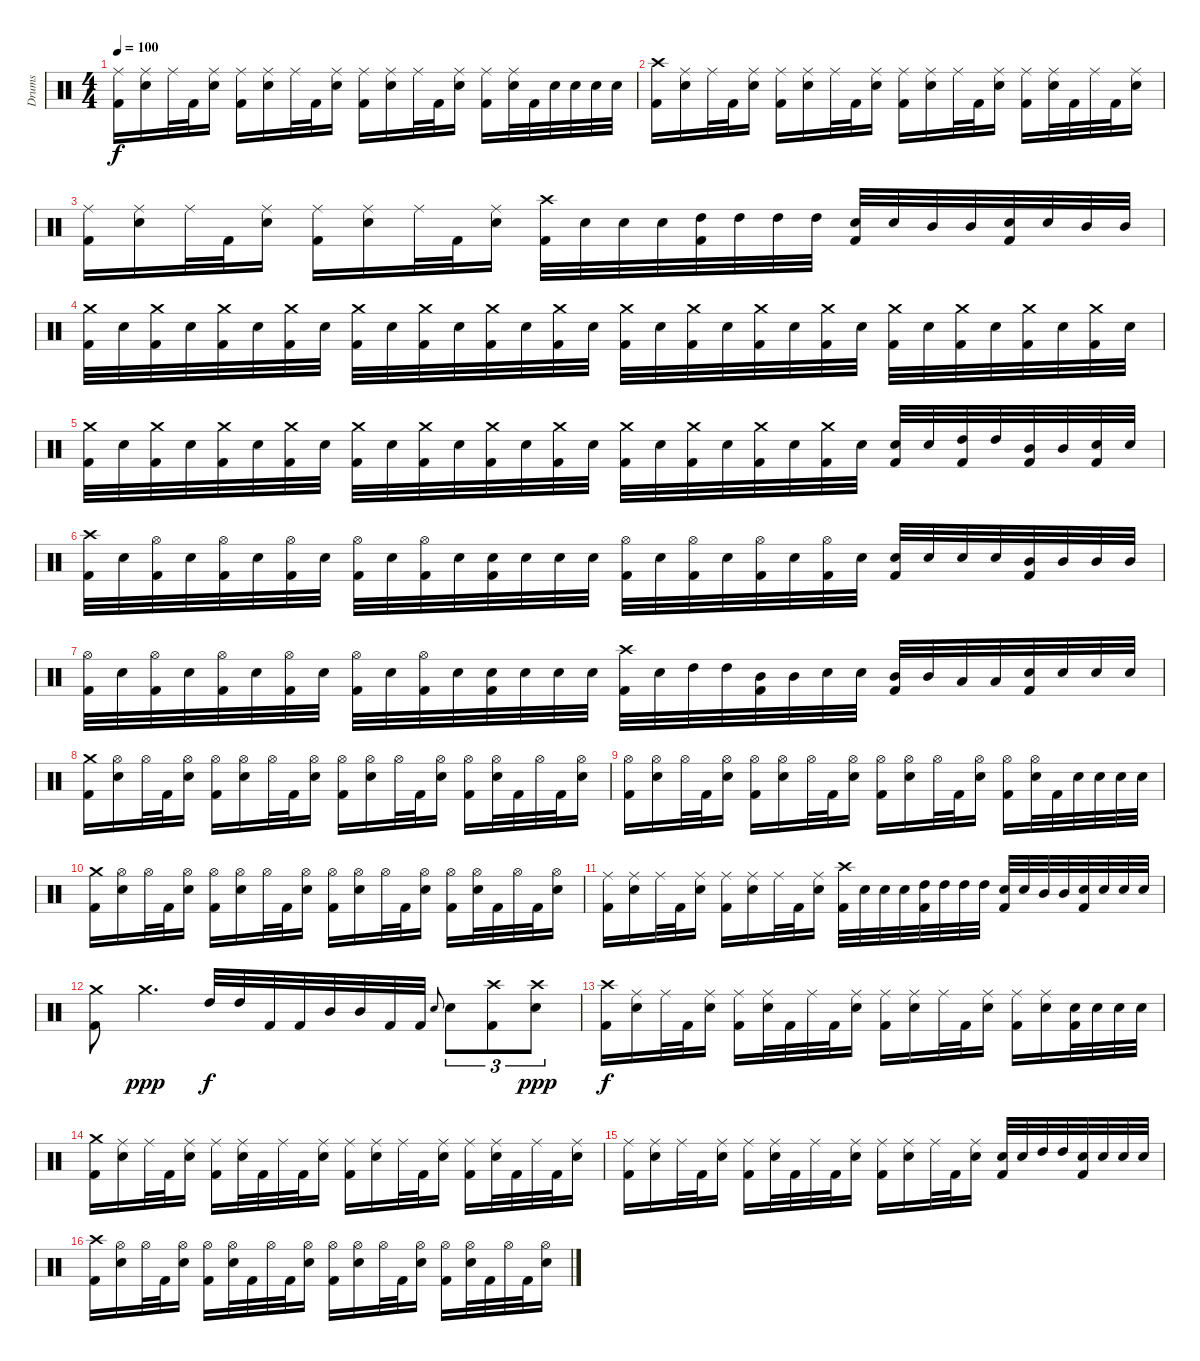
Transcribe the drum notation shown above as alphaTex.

\track ("Drums" "Drums") {instrument percussion}
\staff {score}
\articulation defaults
\ts (4 4)
\tempo 100
\clef neutral
\ks c
("Ride (middle)" "Kick (hit) 2").16{dy f} ("Ride (middle)" "Electric Snare (hit)").16 "Ride (middle)".32 "Kick (hit) 2".32 ("Ride (middle)" "Electric Snare (hit)").16 ("Ride (middle)" "Kick (hit) 2").16 ("Ride (middle)" "Electric Snare (hit)").16 "Ride (middle)".32 "Kick (hit) 2".32 ("Ride (middle)" "Electric Snare (hit)").16 ("Ride (middle)" "Kick (hit) 2").16 ("Ride (middle)" "Electric Snare (hit)").16 "Ride (middle)".32 "Kick (hit) 2".32 ("Ride (middle)" "Electric Snare (hit)").16 ("Ride (middle)" "Kick (hit) 2").16 ("Ride (middle)" "Electric Snare (hit)").32 "Kick (hit) 2".32 "Electric Snare (hit)".32 "Electric Snare (hit)".32 "Electric Snare (hit)".32 "Electric Snare (hit)".32 |
("Crash high (hit)" "Kick (hit) 2").16 ("Ride (middle)" "Electric Snare (hit)").16 "Ride (middle)".32 "Kick (hit) 2".32 ("Ride (middle)" "Electric Snare (hit)").16 ("Ride (middle)" "Kick (hit) 2").16 ("Ride (middle)" "Electric Snare (hit)").16 "Ride (middle)".32 "Kick (hit) 2".32 ("Ride (middle)" "Electric Snare (hit)").16 ("Ride (middle)" "Kick (hit) 2").16 ("Ride (middle)" "Electric Snare (hit)").16 "Ride (middle)".32 "Kick (hit) 2".32 ("Ride (middle)" "Electric Snare (hit)").16 ("Ride (middle)" "Kick (hit) 2").16 ("Ride (middle)" "Electric Snare (hit)").32 "Kick (hit) 2".32 "Ride (middle)".32 "Kick (hit) 2".32 ("Ride (middle)" "Electric Snare (hit)").16 |
("Ride (middle)" "Kick (hit) 2").16 ("Ride (middle)" "Electric Snare (hit)").16 "Ride (middle)".32 "Kick (hit) 2".32 ("Ride (middle)" "Electric Snare (hit)").16 ("Ride (middle)" "Kick (hit) 2").16 ("Ride (middle)" "Electric Snare (hit)").16 "Ride (middle)".32 "Kick (hit) 2".32 ("Ride (middle)" "Electric Snare (hit)").16 ("Crash high (hit)" "Kick (hit) 2").32 "Electric Snare (hit)".32 "Electric Snare (hit)".32 "Electric Snare (hit)".32 ("High Tom (hit)" "Kick (hit) 2").32 "High Tom (hit)".32 "High Tom (hit)".32 "High Tom (hit)".32 ("Electric Snare (hit)" "Kick (hit) 2").32 "Electric Snare (hit)".32 "Mid Tom (hit)".32 "Mid Tom (hit)".32 ("Electric Snare (hit)" "Kick (hit) 2").32 "Electric Snare (hit)".32 "Mid Tom (hit)".32 "Mid Tom (hit)".32 |
("Crash medium (hit)" "Kick (hit) 2").32 "Electric Snare (hit)".32 ("Crash medium (hit)" "Kick (hit) 2").32 "Electric Snare (hit)".32 ("Crash medium (hit)" "Kick (hit) 2").32 "Electric Snare (hit)".32 ("Crash medium (hit)" "Kick (hit) 2").32 "Electric Snare (hit)".32 ("Crash medium (hit)" "Kick (hit) 2").32 "Electric Snare (hit)".32 ("Crash medium (hit)" "Kick (hit) 2").32 "Electric Snare (hit)".32 ("Crash medium (hit)" "Kick (hit) 2").32 "Electric Snare (hit)".32 ("Crash medium (hit)" "Kick (hit) 2").32 "Electric Snare (hit)".32 ("Crash medium (hit)" "Kick (hit) 2").32 "Electric Snare (hit)".32 ("Crash medium (hit)" "Kick (hit) 2").32 "Electric Snare (hit)".32 ("Crash medium (hit)" "Kick (hit) 2").32 "Electric Snare (hit)".32 ("Crash medium (hit)" "Kick (hit) 2").32 "Electric Snare (hit)".32 ("Crash medium (hit)" "Kick (hit) 2").32 "Electric Snare (hit)".32 ("Crash medium (hit)" "Kick (hit) 2").32 "Electric Snare (hit)".32 ("Crash medium (hit)" "Kick (hit) 2").32 "Electric Snare (hit)".32 ("Crash medium (hit)" "Kick (hit) 2").32 "Electric Snare (hit)".32 |
("Crash medium (hit)" "Kick (hit) 2").32 "Electric Snare (hit)".32 ("Crash medium (hit)" "Kick (hit) 2").32 "Electric Snare (hit)".32 ("Crash medium (hit)" "Kick (hit) 2").32 "Electric Snare (hit)".32 ("Crash medium (hit)" "Kick (hit) 2").32 "Electric Snare (hit)".32 ("Crash medium (hit)" "Kick (hit) 2").32 "Electric Snare (hit)".32 ("Crash medium (hit)" "Kick (hit) 2").32 "Electric Snare (hit)".32 ("Crash medium (hit)" "Kick (hit) 2").32 "Electric Snare (hit)".32 ("Crash medium (hit)" "Kick (hit) 2").32 "Electric Snare (hit)".32 ("Crash medium (hit)" "Kick (hit) 2").32 "Electric Snare (hit)".32 ("Crash medium (hit)" "Kick (hit) 2").32 "Electric Snare (hit)".32 ("Crash medium (hit)" "Kick (hit) 2").32 "Electric Snare (hit)".32 ("Crash medium (hit)" "Kick (hit) 2").32 "Electric Snare (hit)".32 ("Electric Snare (hit)" "Kick (hit) 2").32 "Electric Snare (hit)".32 ("High Tom (hit)" "Kick (hit) 2").32 "High Tom (hit)".32 ("Mid Tom (hit)" "Kick (hit) 2").32 "Mid Tom (hit)".32 ("Electric Snare (hit)" "Kick (hit) 2").32 "Electric Snare (hit)".32 |
("Crash high (hit)" "Kick (hit) 2").32 "Electric Snare (hit)".32 ("Hi-Hat (open)" "Kick (hit) 2").32 "Electric Snare (hit)".32 ("Hi-Hat (open)" "Kick (hit) 2").32 "Electric Snare (hit)".32 ("Hi-Hat (open)" "Kick (hit) 2").32 "Electric Snare (hit)".32 ("Hi-Hat (open)" "Kick (hit) 2").32 "Electric Snare (hit)".32 ("Hi-Hat (open)" "Kick (hit) 2").32 "Electric Snare (hit)".32 ("Electric Snare (hit)" "Kick (hit) 2").32 "Electric Snare (hit)".32 "Electric Snare (hit)".32 "Electric Snare (hit)".32 ("Hi-Hat (open)" "Kick (hit) 2").32 "Electric Snare (hit)".32 ("Hi-Hat (open)" "Kick (hit) 2").32 "Electric Snare (hit)".32 ("Hi-Hat (open)" "Kick (hit) 2").32 "Electric Snare (hit)".32 ("Hi-Hat (open)" "Kick (hit) 2").32 "Electric Snare (hit)".32 ("Electric Snare (hit)" "Kick (hit) 2").32 "Electric Snare (hit)".32 "Electric Snare (hit)".32 "Electric Snare (hit)".32 ("Mid Tom (hit)" "Kick (hit) 2").32 "Mid Tom (hit)".32 "Mid Tom (hit)".32 "Mid Tom (hit)".32 |
("Hi-Hat (open)" "Kick (hit) 2").32 "Electric Snare (hit)".32 ("Hi-Hat (open)" "Kick (hit) 2").32 "Electric Snare (hit)".32 ("Hi-Hat (open)" "Kick (hit) 2").32 "Electric Snare (hit)".32 ("Hi-Hat (open)" "Kick (hit) 2").32 "Electric Snare (hit)".32 ("Hi-Hat (open)" "Kick (hit) 2").32 "Electric Snare (hit)".32 ("Hi-Hat (open)" "Kick (hit) 2").32 "Electric Snare (hit)".32 ("Electric Snare (hit)" "Kick (hit) 2").32 "Electric Snare (hit)".32 "Electric Snare (hit)".32 "Electric Snare (hit)".32 ("Crash high (hit)" "Kick (hit) 2").32 "Electric Snare (hit)".32 "High Tom (hit)".32 "High Tom (hit)".32 ("Mid Tom (hit)" "Kick (hit) 2").32 "Mid Tom (hit)".32 "Electric Snare (hit)".32 "Electric Snare (hit)".32 ("Mid Tom (hit)" "Kick (hit) 2").32 "Mid Tom (hit)".32 "Low Tom (hit)".32 "Low Tom (hit)".32 ("Electric Snare (hit)" "Kick (hit) 2").32 "Electric Snare (hit)".32 "Electric Snare (hit)".32 "Electric Snare (hit)".32 |
("Crash medium (hit)" "Kick (hit) 2").16 ("Hi-Hat (open)" "Electric Snare (hit)").16 "Hi-Hat (open)".32 "Kick (hit) 2".32 ("Hi-Hat (open)" "Electric Snare (hit)").16 ("Hi-Hat (open)" "Kick (hit) 2").16 ("Hi-Hat (open)" "Electric Snare (hit)").16 "Hi-Hat (open)".32 "Kick (hit) 2".32 ("Hi-Hat (open)" "Electric Snare (hit)").16 ("Hi-Hat (open)" "Kick (hit) 2").16 ("Hi-Hat (open)" "Electric Snare (hit)").16 "Hi-Hat (open)".32 "Kick (hit) 2".32 ("Hi-Hat (open)" "Electric Snare (hit)").16 ("Hi-Hat (open)" "Kick (hit) 2").16 ("Hi-Hat (open)" "Electric Snare (hit)").32 "Kick (hit) 2".32 "Hi-Hat (open)".32 "Kick (hit) 2".32 ("Hi-Hat (open)" "Electric Snare (hit)").16 |
("Hi-Hat (open)" "Kick (hit) 2").16 ("Hi-Hat (open)" "Electric Snare (hit)").16 "Hi-Hat (open)".32 "Kick (hit) 2".32 ("Hi-Hat (open)" "Electric Snare (hit)").16 ("Hi-Hat (open)" "Kick (hit) 2").16 ("Hi-Hat (open)" "Electric Snare (hit)").16 "Hi-Hat (open)".32 "Kick (hit) 2".32 ("Hi-Hat (open)" "Electric Snare (hit)").16 ("Hi-Hat (open)" "Kick (hit) 2").16 ("Hi-Hat (open)" "Electric Snare (hit)").16 "Hi-Hat (open)".32 "Kick (hit) 2".32 ("Hi-Hat (open)" "Electric Snare (hit)").16 ("Hi-Hat (open)" "Kick (hit) 2").16 ("Hi-Hat (open)" "Electric Snare (hit)").32 "Kick (hit) 2".32 "Electric Snare (hit)".32 "Electric Snare (hit)".32 "Electric Snare (hit)".32 "Electric Snare (hit)".32 |
("Crash medium (hit)" "Kick (hit) 2").16 ("Hi-Hat (open)" "Electric Snare (hit)").16 "Hi-Hat (open)".32 "Kick (hit) 2".32 ("Hi-Hat (open)" "Electric Snare (hit)").16 ("Hi-Hat (open)" "Kick (hit) 2").16 ("Hi-Hat (open)" "Electric Snare (hit)").16 "Hi-Hat (open)".32 "Kick (hit) 2".32 ("Hi-Hat (open)" "Electric Snare (hit)").16 ("Hi-Hat (open)" "Kick (hit) 2").16 ("Hi-Hat (open)" "Electric Snare (hit)").16 "Hi-Hat (open)".32 "Kick (hit) 2".32 ("Hi-Hat (open)" "Electric Snare (hit)").16 ("Hi-Hat (open)" "Kick (hit) 2").16 ("Hi-Hat (open)" "Electric Snare (hit)").32 "Kick (hit) 2".32 "Hi-Hat (open)".32 "Kick (hit) 2".32 ("Hi-Hat (open)" "Electric Snare (hit)").16 |
("Ride (middle)" "Kick (hit) 2").16 ("Ride (middle)" "Electric Snare (hit)").16 "Ride (middle)".32 "Kick (hit) 2".32 ("Ride (middle)" "Electric Snare (hit)").16 ("Ride (middle)" "Kick (hit) 2").16 ("Ride (middle)" "Electric Snare (hit)").16 "Ride (middle)".32 "Kick (hit) 2".32 ("Ride (middle)" "Electric Snare (hit)").16 ("Crash high (hit)" "Kick (hit) 2").32 "Electric Snare (hit)".32 "Electric Snare (hit)".32 "Electric Snare (hit)".32 ("High Tom (hit)" "Kick (hit) 2").32 "High Tom (hit)".32 "High Tom (hit)".32 "High Tom (hit)".32 ("Electric Snare (hit)" "Kick (hit) 2").32 "Electric Snare (hit)".32 "Mid Tom (hit)".32 "Mid Tom (hit)".32 ("Electric Snare (hit)" "Kick (hit) 2").32 "Electric Snare (hit)".32 "Electric Snare (hit)".32 "Electric Snare (hit)".32 |
("Crash medium (hit)" "Kick (hit) 2").8 "Crash medium (hit)".4{d dy ppp} "High Tom (hit)".32{dy f} "High Tom (hit)".32 "Kick (hit) 2".32 "Kick (hit) 2".32 "Mid Tom (hit)".32 "Mid Tom (hit)".32 "Kick (hit) 2".32 "Kick (hit) 2".32 "Electric Snare (hit)".8{gr onbeat} "Electric Snare (hit)".8{tu (3 2)} ("Crash high (hit)" "Kick (hit) 2").8{tu (3 2)} ("Crash high (hit)" "Electric Snare (hit)").8{tu (3 2) dy ppp} |
("Crash high (hit)" "Kick (hit) 2").16{dy f} ("Ride (middle)" "Electric Snare (hit)").16 "Ride (middle)".32 "Kick (hit) 2".32 ("Ride (middle)" "Electric Snare (hit)").16 ("Ride (middle)" "Kick (hit) 2").16 ("Ride (middle)" "Electric Snare (hit)").32 "Kick (hit) 2".32 "Ride (middle)".32 "Kick (hit) 2".32 ("Ride (middle)" "Electric Snare (hit)").16 ("Ride (middle)" "Kick (hit) 2").16 ("Ride (middle)" "Electric Snare (hit)").16 "Ride (middle)".32 "Kick (hit) 2".32 ("Ride (middle)" "Electric Snare (hit)").16 ("Ride (middle)" "Kick (hit) 2").16 ("Ride (middle)" "Electric Snare (hit)").16 ("Electric Snare (hit)" "Kick (hit) 2").32 "Electric Snare (hit)".32 "Electric Snare (hit)".32 "Electric Snare (hit)".32 |
("Crash medium (hit)" "Kick (hit) 2").16 ("Ride (middle)" "Electric Snare (hit)").16 "Ride (middle)".32 "Kick (hit) 2".32 ("Ride (middle)" "Electric Snare (hit)").16 ("Ride (middle)" "Kick (hit) 2").16 ("Ride (middle)" "Electric Snare (hit)").32 "Kick (hit) 2".32 "Ride (middle)".32 "Kick (hit) 2".32 ("Ride (middle)" "Electric Snare (hit)").16 ("Ride (middle)" "Kick (hit) 2").16 ("Ride (middle)" "Electric Snare (hit)").16 "Ride (middle)".32 "Kick (hit) 2".32 ("Ride (middle)" "Electric Snare (hit)").16 ("Ride (middle)" "Kick (hit) 2").16 ("Ride (middle)" "Electric Snare (hit)").32 "Kick (hit) 2".32 "Ride (middle)".32 "Kick (hit) 2".32 ("Ride (middle)" "Electric Snare (hit)").16 |
("Ride (middle)" "Kick (hit) 2").16 ("Ride (middle)" "Electric Snare (hit)").16 "Ride (middle)".32 "Kick (hit) 2".32 ("Ride (middle)" "Electric Snare (hit)").16 ("Ride (middle)" "Kick (hit) 2").16 ("Ride (middle)" "Electric Snare (hit)").32 "Kick (hit) 2".32 "Ride (middle)".32 "Kick (hit) 2".32 ("Ride (middle)" "Electric Snare (hit)").16 ("Ride (middle)" "Kick (hit) 2").16 ("Ride (middle)" "Electric Snare (hit)").16 "Ride (middle)".32 "Kick (hit) 2".32 ("Ride (middle)" "Electric Snare (hit)").16 ("Electric Snare (hit)" "Kick (hit) 2").32 "Electric Snare (hit)".32 "High Tom (hit)".32 "High Tom (hit)".32 ("Electric Snare (hit)" "Kick (hit) 2").32 "Electric Snare (hit)".32 "Electric Snare (hit)".32 "Electric Snare (hit)".32 |
("Crash high (hit)" "Kick (hit) 2").16 ("Hi-Hat (open)" "Electric Snare (hit)").16 "Hi-Hat (open)".32 "Kick (hit) 2".32 ("Hi-Hat (open)" "Electric Snare (hit)").16 ("Hi-Hat (open)" "Kick (hit) 2").16 ("Hi-Hat (open)" "Electric Snare (hit)").32 "Kick (hit) 2".32 "Hi-Hat (open)".32 "Kick (hit) 2".32 ("Hi-Hat (open)" "Electric Snare (hit)").16 ("Hi-Hat (open)" "Kick (hit) 2").16 ("Hi-Hat (open)" "Electric Snare (hit)").16 "Hi-Hat (open)".32 "Kick (hit) 2".32 ("Hi-Hat (open)" "Electric Snare (hit)").16 ("Hi-Hat (open)" "Kick (hit) 2").16 ("Hi-Hat (open)" "Electric Snare (hit)").32 "Kick (hit) 2".32 "Hi-Hat (open)".32 "Kick (hit) 2".32 ("Hi-Hat (open)" "Electric Snare (hit)").16
